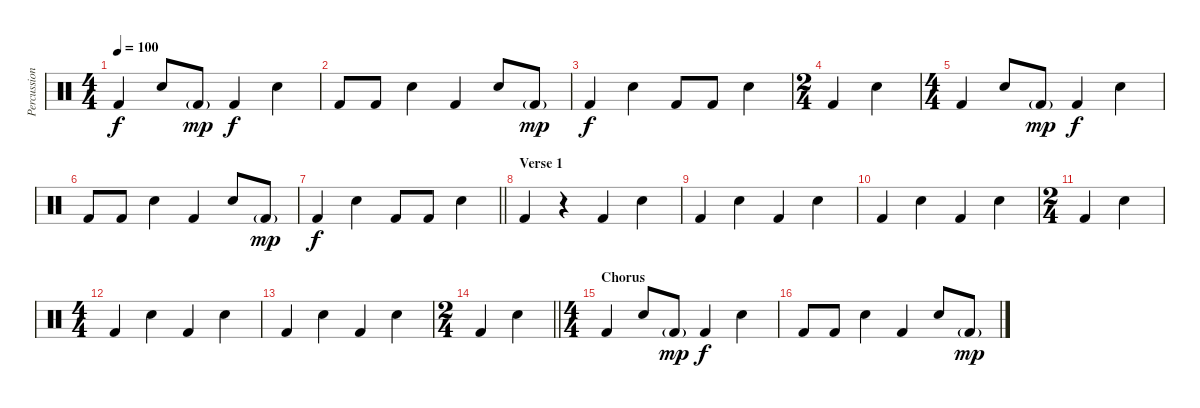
\track ("Percussion" "Percussion") {instrument percussion}
\staff {score}
\articulation defaults
\ts (4 4)
\tempo 100
\clef neutral
\ks c "Kick (hit) 2".4{dy f} "Snare (hit) 2".8 "Kick (hit) 2"{g}.8{dy mp} "Kick (hit) 2".4{dy f} "Snare (hit) 2".4
|
"Kick (hit) 2".8 "Kick (hit) 2".8 "Snare (hit) 2".4 "Kick (hit) 2".4 "Snare (hit) 2".8 "Kick (hit) 2"{g}.8{dy mp} |
"Kick (hit) 2".4{dy f} "Snare (hit) 2".4 "Kick (hit) 2".8 "Kick (hit) 2".8 "Snare (hit) 2".4 |
\ts (2 4)
"Kick (hit) 2".4 "Snare (hit) 2".4 |
\ts (4 4)
"Kick (hit) 2".4 "Snare (hit) 2".8 "Kick (hit) 2"{g}.8{dy mp} "Kick (hit) 2".4{dy f} "Snare (hit) 2".4 |
"Kick (hit) 2".8 "Kick (hit) 2".8 "Snare (hit) 2".4 "Kick (hit) 2".4 "Snare (hit) 2".8 "Kick (hit) 2"{g}.8{dy mp} |
\barLineRight lightlight "Kick (hit) 2".4{dy f} "Snare (hit) 2".4 "Kick (hit) 2".8 "Kick (hit) 2".8 "Snare (hit) 2".4
|
\section ("" "Verse 1")
"Kick (hit) 2".4 r.4 "Kick (hit) 2".4 "Snare (hit) 2".4 |
"Kick (hit) 2".4 "Snare (hit) 2".4 "Kick (hit) 2".4 "Snare (hit) 2".4 |
"Kick (hit) 2".4 "Snare (hit) 2".4 "Kick (hit) 2".4 "Snare (hit) 2".4 |
\ts (2 4)
"Kick (hit) 2".4 "Snare (hit) 2".4 |
\ts (4 4)
"Kick (hit) 2".4 "Snare (hit) 2".4 "Kick (hit) 2".4 "Snare (hit) 2".4 |
"Kick (hit) 2".4 "Snare (hit) 2".4 "Kick (hit) 2".4 "Snare (hit) 2".4 |
\ts (2 4)
\barLineRight lightlight "Kick (hit) 2".4 "Snare (hit) 2".4
|
\ts (4 4)
\section ("" "Chorus")
"Kick (hit) 2".4 "Snare (hit) 2".8 "Kick (hit) 2"{g}.8{dy mp} "Kick (hit) 2".4{dy f} "Snare (hit) 2".4 |
"Kick (hit) 2".8 "Kick (hit) 2".8 "Snare (hit) 2".4 "Kick (hit) 2".4 "Snare (hit) 2".8 "Kick (hit) 2"{g}.8{dy mp}
